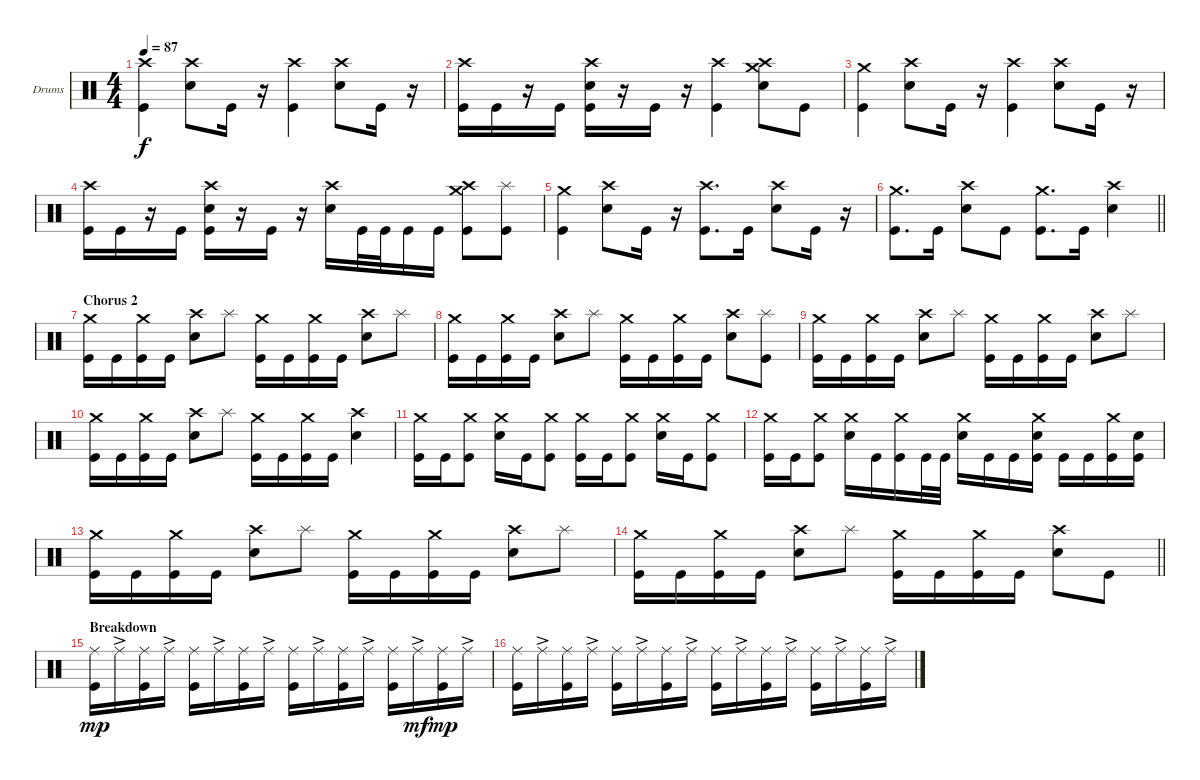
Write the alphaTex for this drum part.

\bracketExtendMode groupsimilarinstruments
\firstSystemTrackNameOrientation horizontal
\otherSystemsTrackNameOrientation horizontal
\track ("Drumkit" "Drums") {instrument percussion}
\staff {score}
\articulation defaults
\ts (4 4)
\tempo 87
\clef neutral
\ks c
("Crash high (hit)" "Kick (hit)").4{dy f} ("Crash high (hit)" "Snare (hit) 2").8 "Kick (hit)".16 r.16 ("Crash high (hit)" "Kick (hit)").4 ("Crash high (hit)" "Snare (hit) 2").8 "Kick (hit)".16 r.16 |
("Crash high (hit)" "Kick (hit)").16 "Kick (hit)".16 r.16 "Kick (hit)".16 ("Crash high (hit)" "Snare (hit) 2" "Kick (hit)").16 r.16 "Kick (hit)".16 r.16 ("Crash high (hit)" "Kick (hit)").4 ("Crash medium (hit)" "Crash high (hit)" "Snare (hit) 2").8 "Kick (hit)".8 |
("Crash medium (hit)" "Kick (hit)").4 ("Crash high (hit)" "Snare (hit) 2").8 "Kick (hit)".16 r.16 ("Crash high (hit)" "Kick (hit)").4 ("Crash high (hit)" "Snare (hit) 2").8 "Kick (hit)".16 r.16 |
("Crash high (hit)" "Kick (hit)").16 "Kick (hit)".16 r.16 "Kick (hit)".16 ("Crash high (hit)" "Snare (hit) 2" "Kick (hit)").16 r.16 "Kick (hit)".16 r.16 ("Crash high (hit)" "Snare (hit) 2").16 "Kick (hit)".32 "Kick (hit)".32 "Kick (hit)".16 "Kick (hit)".16 ("Crash medium (hit)" "Crash high (hit)" "Kick (hit)").8 ("Splash (hit)" "Kick (hit)").8 |
("Crash medium (hit)" "Kick (hit)").4 ("Crash high (hit)" "Snare (hit) 2").8 "Kick (hit)".16 r.16 ("Crash high (hit)" "Kick (hit)").8{d} "Kick (hit)".16 ("Crash high (hit)" "Snare (hit) 2").8 "Kick (hit)".16 r.16 |
\barLineRight lightlight
("Crash medium (hit)" "Kick (hit)").8{d} "Kick (hit)".16 ("Crash high (hit)" "Snare (hit) 2").8 "Kick (hit)".8 ("Crash medium (hit)" "Kick (hit)").8{d} "Kick (hit)".16 ("Crash high (hit)" "Snare (hit) 2").4 |
\section ("" "Chorus 2")
("Crash medium (hit)" "Kick (hit)").16 "Kick (hit)".16 ("Crash medium (hit)" "Kick (hit)").16 "Kick (hit)".16 ("Crash high (hit)" "Snare (hit) 2").8 "Splash (hit)".8 ("Crash medium (hit)" "Kick (hit)").16 "Kick (hit)".16 ("Crash medium (hit)" "Kick (hit)").16 "Kick (hit)".16 ("Crash high (hit)" "Snare (hit) 2").8 "Splash (hit)".8 |
("Crash medium (hit)" "Kick (hit)").16 "Kick (hit)".16 ("Crash medium (hit)" "Kick (hit)").16 "Kick (hit)".16 ("Crash high (hit)" "Snare (hit) 2").8 "Splash (hit)".8 ("Crash medium (hit)" "Kick (hit)").16 "Kick (hit)".16 ("Crash medium (hit)" "Kick (hit)").16 "Kick (hit)".16 ("Crash high (hit)" "Snare (hit) 2").8 ("Splash (hit)" "Kick (hit)").8 |
("Crash medium (hit)" "Kick (hit)").16 "Kick (hit)".16 ("Crash medium (hit)" "Kick (hit)").16 "Kick (hit)".16 ("Crash high (hit)" "Snare (hit) 2").8 "Splash (hit)".8 ("Crash medium (hit)" "Kick (hit)").16 "Kick (hit)".16 ("Crash medium (hit)" "Kick (hit)").16 "Kick (hit)".16 ("Crash high (hit)" "Snare (hit) 2").8 "Splash (hit)".8 |
("Crash medium (hit)" "Kick (hit)").16 "Kick (hit)".16 ("Crash medium (hit)" "Kick (hit)").16 "Kick (hit)".16 ("Crash high (hit)" "Snare (hit) 2").8 "Splash (hit)".8 ("Crash medium (hit)" "Kick (hit)").16 "Kick (hit)".16 ("Crash medium (hit)" "Kick (hit)").16 "Kick (hit)".16 ("Crash high (hit)" "Snare (hit) 2").4 |
("Crash medium (hit)" "Kick (hit)").16 "Kick (hit)".16 ("Crash medium (hit)" "Kick (hit)").8 ("Crash medium (hit)" "Snare (hit) 2").16 "Kick (hit)".16 ("Crash medium (hit)" "Kick (hit)").8 ("Crash medium (hit)" "Kick (hit)").16 "Kick (hit)".16 ("Crash medium (hit)" "Kick (hit)").8 ("Crash medium (hit)" "Snare (hit) 2").16 "Kick (hit)".16 ("Crash medium (hit)" "Kick (hit)").8 |
("Crash medium (hit)" "Kick (hit)").16 "Kick (hit)".16 ("Crash medium (hit)" "Kick (hit)").8 ("Crash medium (hit)" "Snare (hit) 2").16 "Kick (hit)".16 ("Crash medium (hit)" "Kick (hit)").16 "Kick (hit)".32 "Kick (hit)".32 ("Crash medium (hit)" "Snare (hit) 2").16 "Kick (hit)".16 "Kick (hit)".16 ("Crash medium (hit)" "Snare (hit) 2" "Kick (hit)").16 "Kick (hit)".16 "Kick (hit)".16 ("Crash medium (hit)" "Kick (hit)").16 ("Snare (hit) 2" "Kick (hit)").16 |
("Crash medium (hit)" "Kick (hit)").16 "Kick (hit)".16 ("Crash medium (hit)" "Kick (hit)").16 "Kick (hit)".16 ("Crash high (hit)" "Snare (hit) 2").8 "Splash (hit)".8 ("Crash medium (hit)" "Kick (hit)").16 "Kick (hit)".16 ("Crash medium (hit)" "Kick (hit)").16 "Kick (hit)".16 ("Crash high (hit)" "Snare (hit) 2").8 "Splash (hit)".8 |
\barLineRight lightlight
("Crash medium (hit)" "Kick (hit)").16 "Kick (hit)".16 ("Crash medium (hit)" "Kick (hit)").16 "Kick (hit)".16 ("Crash high (hit)" "Snare (hit) 2").8 "Splash (hit)".8 ("Crash medium (hit)" "Kick (hit)").16 "Kick (hit)".16 ("Crash medium (hit)" "Kick (hit)").16 "Kick (hit)".16 ("Crash high (hit)" "Snare (hit) 2").8 "Kick (hit)".8 |
\section ("" "Breakdown")
("Ride (middle)" "Kick (hit)").16{dy mp} "Ride (middle)"{ac}.16 ("Ride (middle)" "Kick (hit)").16 "Ride (middle)"{ac}.16 ("Ride (middle)" "Kick (hit)").16 "Ride (middle)"{ac}.16 ("Ride (middle)" "Kick (hit)").16 "Ride (middle)"{ac}.16 ("Ride (middle)" "Kick (hit)").16 "Ride (middle)"{ac}.16 ("Ride (middle)" "Kick (hit)").16 "Ride (middle)"{ac}.16 ("Ride (middle)" "Kick (hit)").16 "Ride (middle)"{ac}.16{dy mf} ("Ride (middle)" "Kick (hit)").16{dy mp} "Ride (middle)"{ac}.16 |
("Ride (middle)" "Kick (hit)").16 "Ride (middle)"{ac}.16 ("Ride (middle)" "Kick (hit)").16 "Ride (middle)"{ac}.16 ("Ride (middle)" "Kick (hit)").16 "Ride (middle)"{ac}.16 ("Ride (middle)" "Kick (hit)").16 "Ride (middle)"{ac}.16 ("Ride (middle)" "Kick (hit)").16 "Ride (middle)"{ac}.16 ("Ride (middle)" "Kick (hit)").16 "Ride (middle)"{ac}.16 ("Ride (middle)" "Kick (hit)").16 "Ride (middle)"{ac}.16 ("Ride (middle)" "Kick (hit)").16 "Ride (middle)"{ac}.16
